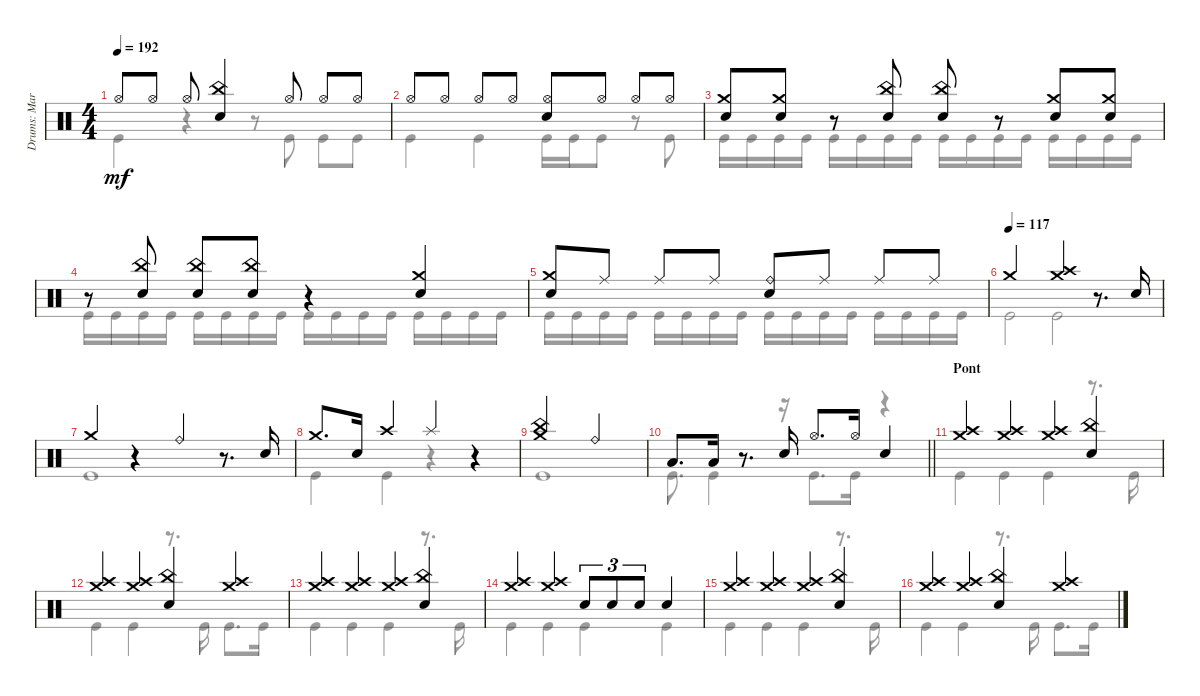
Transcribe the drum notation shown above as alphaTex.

\track ("Drums: Mario Duplantier" "Drums: Mar") {instrument percussion}
\staff {score}
\articulation defaults
\voice
\ts (4 4)
\tempo 192
\clef neutral
\ks c "Hi-Hat (open)".8{dy mf} "Hi-Hat (open)".8 "Hi-Hat (open)".8
("Snare (hit) 2" "China (hit)").4 "Hi-Hat (open)".8 "Hi-Hat (open)".8 "Hi-Hat (open)".8 |
"Hi-Hat (open)".8 "Hi-Hat (open)".8 "Hi-Hat (open)".8 "Hi-Hat (open)".8 ("Snare (hit) 2" "Hi-Hat (open)").8 "Hi-Hat (open)".8 "Hi-Hat (open)".8 "Hi-Hat (open)".8 |
("Snare (hit) 2" "Crash medium (hit)").8 ("Snare (hit) 2" "Crash medium (hit)").8 r.8 ("Snare (hit) 2" "China (hit)").8 ("Snare (hit) 2" "China (hit)").8 r.8 ("Snare (hit) 2" "Crash medium (hit)").8 ("Snare (hit) 2" "Crash medium (hit)").8 |
r.8 ("Snare (hit) 2" "China (hit)").8 ("Snare (hit) 2" "China (hit)").8 ("Snare (hit) 2" "China (hit)").8 r.4 ("Snare (hit) 2" "Crash medium (hit)").4 |
("Snare (hit) 2" "Crash medium (hit)").8 "Ride (middle)".8 "Ride (middle)".8 "Ride (middle)".8 ("Snare (hit) 2" "Ride (bell)").8 "Ride (middle)".8 "Ride (middle)".8 "Ride (middle)".8 |
\tempo (117)
"Crash medium (hit)".2 ("Crash medium (hit)" "Crash high (hit)").4 r.8{d} "Snare (hit) 2".16 |
"Crash medium (hit)".4 r.4 "Ride (bell)".4 r.8{d} "Snare (hit) 2".16 |
"Crash medium (hit)".8{d} "Snare (hit) 2".16 "Crash high (hit)".4 "Splash (hit)".4 r.4 |
("Crash medium (hit)" "China (hit)").2 "Ride (bell)".2 |
\barLineRight lightlight "Low Floor Tom (hit)".8{d} "Low Floor Tom (hit)".16
r.8{d} "Snare (hit) 2".16 "Hi-Hat (open)".8{d} "Hi-Hat (open)".16 "Snare (hit) 2".4 |
\section ("" "Pont")
("Crash medium (hit)" "Crash high (hit)").4 ("Crash medium (hit)" "Crash high (hit)").4 ("Crash medium (hit)" "Crash high (hit)").4 ("Snare (hit) 2" "China (hit)").4 |
("Crash medium (hit)" "Crash high (hit)").4 ("Crash medium (hit)" "Crash high (hit)").4 ("Snare (hit) 2" "China (hit)").4 ("Crash medium (hit)" "Crash high (hit)").4 |
("Crash medium (hit)" "Crash high (hit)").4 ("Crash medium (hit)" "Crash high (hit)").4 ("Crash medium (hit)" "Crash high (hit)").4 ("Snare (hit) 2" "China (hit)").4 |
("Crash medium (hit)" "Crash high (hit)").4 ("Crash medium (hit)" "Crash high (hit)").4 "Snare (hit) 2".8{tu (3 2)} "Snare (hit) 2".8{tu (3 2)} "Snare (hit) 2".8{tu (3 2)} "Snare (hit) 2".4 |
("Crash medium (hit)" "Crash high (hit)").4 ("Crash medium (hit)" "Crash high (hit)").4 ("Crash medium (hit)" "Crash high (hit)").4 ("Snare (hit) 2" "China (hit)").4 |
("Crash medium (hit)" "Crash high (hit)").4 ("Crash medium (hit)" "Crash high (hit)").4 ("Snare (hit) 2" "China (hit)").4 ("Crash medium (hit)" "Crash high (hit)").4
\voice
\clef neutral
\ottava regular
\simile none
\ks c "Kick (hit)".4{dy mf}
r.4 r.8 "Kick (hit)".8 "Kick (hit)".8 "Kick (hit)".8 |
"Kick (hit)".4 "Kick (hit)".4 "Kick (hit)".16 "Kick (hit)".16 "Kick (hit)".8 r.8 "Kick (hit)".8 |
"Kick (hit)".16 "Kick (hit)".16 "Kick (hit)".16 "Kick (hit)".16 "Kick (hit)".16 "Kick (hit)".16 "Kick (hit)".16 "Kick (hit)".16 "Kick (hit)".16 "Kick (hit)".16 "Kick (hit)".16 "Kick (hit)".16 "Kick (hit)".16 "Kick (hit)".16 "Kick (hit)".16 "Kick (hit)".16 |
"Kick (hit)".16 "Kick (hit)".16 "Kick (hit)".16 "Kick (hit)".16 "Kick (hit)".16 "Kick (hit)".16 "Kick (hit)".16 "Kick (hit)".16 "Kick (hit)".16 "Kick (hit)".16 "Kick (hit)".16 "Kick (hit)".16 "Kick (hit)".16 "Kick (hit)".16 "Kick (hit)".16 "Kick (hit)".16 |
"Kick (hit)".16 "Kick (hit)".16 "Kick (hit)".16 "Kick (hit)".16 "Kick (hit)".16 "Kick (hit)".16 "Kick (hit)".16 "Kick (hit)".16 "Kick (hit)".16 "Kick (hit)".16 "Kick (hit)".16 "Kick (hit)".16 "Kick (hit)".16 "Kick (hit)".16 "Kick (hit)".16 "Kick (hit)".16 |
"Kick (hit)".2 "Kick (hit)".2 |
"Kick (hit)".1 |
"Kick (hit)".4 "Kick (hit)".4 r.4 r.4 |
"Kick (hit)".1 |
\barLineRight lightlight "Kick (hit)".8{d} "Kick (hit)".4
r.16 "Kick (hit)".8{d} "Kick (hit)".16 r.4 |
"Kick (hit)".4 "Kick (hit)".4 "Kick (hit)".4 r.8{d} "Kick (hit)".16 |
"Kick (hit)".4 "Kick (hit)".4 r.8{d} "Kick (hit)".16 "Kick (hit)".8{d} "Kick (hit)".16 |
"Kick (hit)".4 "Kick (hit)".4 "Kick (hit)".4 r.8{d} "Kick (hit)".16 |
"Kick (hit)".4 "Kick (hit)".4 "Kick (hit)".4 "Kick (hit)".4 |
"Kick (hit)".4 "Kick (hit)".4 "Kick (hit)".4 r.8{d} "Kick (hit)".16 |
"Kick (hit)".4 "Kick (hit)".4 r.8{d} "Kick (hit)".16 "Kick (hit)".8{d} "Kick (hit)".16
